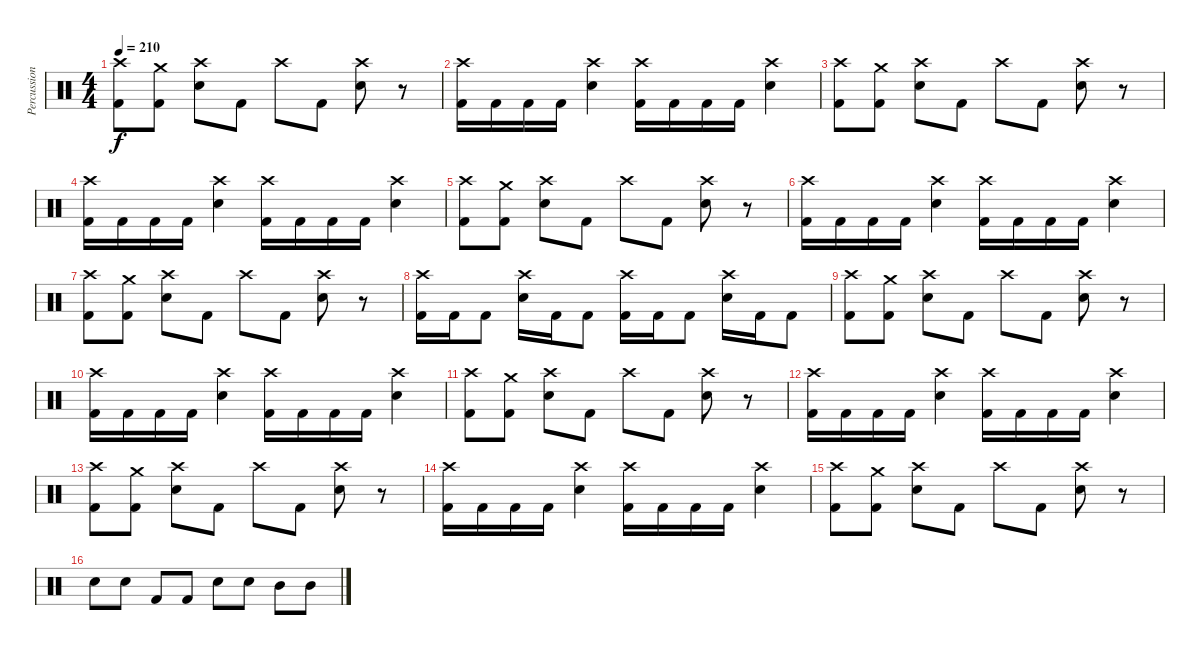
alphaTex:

\track ("Percussions" "Percussion") {instrument percussion}
\staff {score}
\articulation defaults
\ts (4 4)
\tempo 210
\clef neutral
\ks c
("Kick (hit) 2" "Crash high (hit)").8{dy f} ("Kick (hit) 2" "Crash medium (hit)").8 ("Electric Snare (hit)" "Crash high (hit)").8 "Kick (hit) 2".8 "Crash high (hit)".8 "Kick (hit) 2".8 ("Electric Snare (hit)" "Crash high (hit)").8 r.8 |
("Kick (hit) 2" "Crash high (hit)").16 "Kick (hit) 2".16 "Kick (hit) 2".16 "Kick (hit) 2".16 ("Electric Snare (hit)" "Crash high (hit)").4 ("Kick (hit) 2" "Crash high (hit)").16 "Kick (hit) 2".16 "Kick (hit) 2".16 "Kick (hit) 2".16 ("Electric Snare (hit)" "Crash high (hit)").4 |
("Kick (hit) 2" "Crash high (hit)").8 ("Kick (hit) 2" "Crash medium (hit)").8 ("Electric Snare (hit)" "Crash high (hit)").8 "Kick (hit) 2".8 "Crash high (hit)".8 "Kick (hit) 2".8 ("Electric Snare (hit)" "Crash high (hit)").8 r.8 |
("Kick (hit) 2" "Crash high (hit)").16 "Kick (hit) 2".16 "Kick (hit) 2".16 "Kick (hit) 2".16 ("Electric Snare (hit)" "Crash high (hit)").4 ("Kick (hit) 2" "Crash high (hit)").16 "Kick (hit) 2".16 "Kick (hit) 2".16 "Kick (hit) 2".16 ("Electric Snare (hit)" "Crash high (hit)").4 |
("Kick (hit) 2" "Crash high (hit)").8 ("Kick (hit) 2" "Crash medium (hit)").8 ("Electric Snare (hit)" "Crash high (hit)").8 "Kick (hit) 2".8 "Crash high (hit)".8 "Kick (hit) 2".8 ("Electric Snare (hit)" "Crash high (hit)").8 r.8 |
("Kick (hit) 2" "Crash high (hit)").16 "Kick (hit) 2".16 "Kick (hit) 2".16 "Kick (hit) 2".16 ("Electric Snare (hit)" "Crash high (hit)").4 ("Kick (hit) 2" "Crash high (hit)").16 "Kick (hit) 2".16 "Kick (hit) 2".16 "Kick (hit) 2".16 ("Electric Snare (hit)" "Crash high (hit)").4 |
("Kick (hit) 2" "Crash high (hit)").8 ("Kick (hit) 2" "Crash medium (hit)").8 ("Electric Snare (hit)" "Crash high (hit)").8 "Kick (hit) 2".8 "Crash high (hit)".8 "Kick (hit) 2".8 ("Electric Snare (hit)" "Crash high (hit)").8 r.8 |
("Kick (hit) 2" "Crash high (hit)").16 "Kick (hit) 2".16 "Kick (hit) 2".8 ("Electric Snare (hit)" "Crash high (hit)").16 "Kick (hit) 2".16 "Kick (hit) 2".8 ("Kick (hit) 2" "Crash high (hit)").16 "Kick (hit) 2".16 "Kick (hit) 2".8 ("Electric Snare (hit)" "Crash high (hit)").16 "Kick (hit) 2".16 "Kick (hit) 2".8 |
("Kick (hit) 2" "Crash high (hit)").8 ("Kick (hit) 2" "Crash medium (hit)").8 ("Electric Snare (hit)" "Crash high (hit)").8 "Kick (hit) 2".8 "Crash high (hit)".8 "Kick (hit) 2".8 ("Electric Snare (hit)" "Crash high (hit)").8 r.8 |
("Kick (hit) 2" "Crash high (hit)").16 "Kick (hit) 2".16 "Kick (hit) 2".16 "Kick (hit) 2".16 ("Electric Snare (hit)" "Crash high (hit)").4 ("Kick (hit) 2" "Crash high (hit)").16 "Kick (hit) 2".16 "Kick (hit) 2".16 "Kick (hit) 2".16 ("Electric Snare (hit)" "Crash high (hit)").4 |
("Kick (hit) 2" "Crash high (hit)").8 ("Kick (hit) 2" "Crash medium (hit)").8 ("Electric Snare (hit)" "Crash high (hit)").8 "Kick (hit) 2".8 "Crash high (hit)".8 "Kick (hit) 2".8 ("Electric Snare (hit)" "Crash high (hit)").8 r.8 |
("Kick (hit) 2" "Crash high (hit)").16 "Kick (hit) 2".16 "Kick (hit) 2".16 "Kick (hit) 2".16 ("Electric Snare (hit)" "Crash high (hit)").4 ("Kick (hit) 2" "Crash high (hit)").16 "Kick (hit) 2".16 "Kick (hit) 2".16 "Kick (hit) 2".16 ("Electric Snare (hit)" "Crash high (hit)").4 |
("Kick (hit) 2" "Crash high (hit)").8 ("Kick (hit) 2" "Crash medium (hit)").8 ("Electric Snare (hit)" "Crash high (hit)").8 "Kick (hit) 2".8 "Crash high (hit)".8 "Kick (hit) 2".8 ("Electric Snare (hit)" "Crash high (hit)").8 r.8 |
("Kick (hit) 2" "Crash high (hit)").16 "Kick (hit) 2".16 "Kick (hit) 2".16 "Kick (hit) 2".16 ("Electric Snare (hit)" "Crash high (hit)").4 ("Kick (hit) 2" "Crash high (hit)").16 "Kick (hit) 2".16 "Kick (hit) 2".16 "Kick (hit) 2".16 ("Electric Snare (hit)" "Crash high (hit)").4 |
("Kick (hit) 2" "Crash high (hit)").8 ("Kick (hit) 2" "Crash medium (hit)").8 ("Electric Snare (hit)" "Crash high (hit)").8 "Kick (hit) 2".8 "Crash high (hit)".8 "Kick (hit) 2".8 ("Electric Snare (hit)" "Crash high (hit)").8 r.8 |
"Electric Snare (hit)".8 "Electric Snare (hit)".8 "Kick (hit) 2".8 "Kick (hit) 2".8 "Electric Snare (hit)".8 "Electric Snare (hit)".8 "Mid Tom (hit)".8 "Mid Tom (hit)".8
